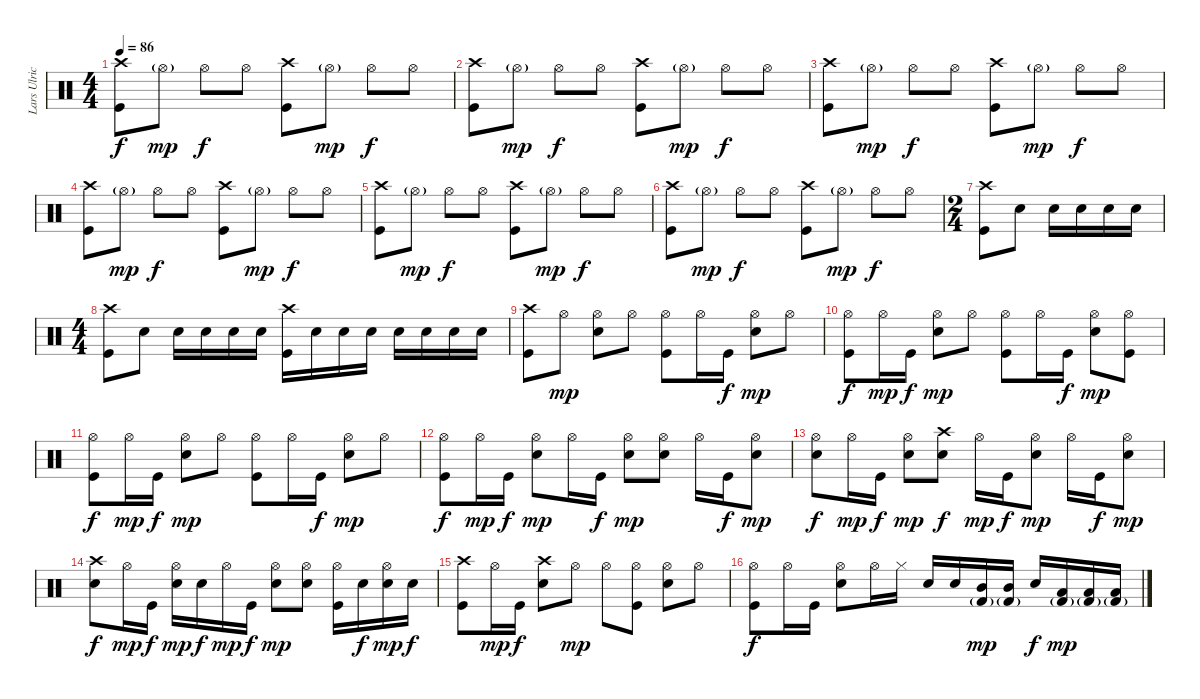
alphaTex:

\track ("Lars Ulrich" "Lars Ulric") {instrument percussion}
\staff {score}
\articulation defaults
\ts (4 4)
\tempo 86
\clef neutral
\ks c
("Crash high (hit)" "Kick (hit)").8{dy f} "Hi-Hat (open)"{g}.8{dy mp} "Hi-Hat (open)".8{dy f} "Hi-Hat (open)".8 ("Crash high (hit)" "Kick (hit)").8 "Hi-Hat (open)"{g}.8{dy mp} "Hi-Hat (open)".8{dy f} "Hi-Hat (open)".8 |
("Crash high (hit)" "Kick (hit)").8 "Hi-Hat (open)"{g}.8{dy mp} "Hi-Hat (open)".8{dy f} "Hi-Hat (open)".8 ("Crash high (hit)" "Kick (hit)").8 "Hi-Hat (open)"{g}.8{dy mp} "Hi-Hat (open)".8{dy f} "Hi-Hat (open)".8 |
("Crash high (hit)" "Kick (hit)").8 "Hi-Hat (open)"{g}.8{dy mp} "Hi-Hat (open)".8{dy f} "Hi-Hat (open)".8 ("Crash high (hit)" "Kick (hit)").8 "Hi-Hat (open)"{g}.8{dy mp} "Hi-Hat (open)".8{dy f} "Hi-Hat (open)".8 |
("Crash high (hit)" "Kick (hit)").8 "Hi-Hat (open)"{g}.8{dy mp} "Hi-Hat (open)".8{dy f} "Hi-Hat (open)".8 ("Crash high (hit)" "Kick (hit)").8 "Hi-Hat (open)"{g}.8{dy mp} "Hi-Hat (open)".8{dy f} "Hi-Hat (open)".8 |
("Crash high (hit)" "Kick (hit)").8 "Hi-Hat (open)"{g}.8{dy mp} "Hi-Hat (open)".8{dy f} "Hi-Hat (open)".8 ("Crash high (hit)" "Kick (hit)").8 "Hi-Hat (open)"{g}.8{dy mp} "Hi-Hat (open)".8{dy f} "Hi-Hat (open)".8 |
("Crash high (hit)" "Kick (hit)").8 "Hi-Hat (open)"{g}.8{dy mp} "Hi-Hat (open)".8{dy f} "Hi-Hat (open)".8 ("Crash high (hit)" "Kick (hit)").8 "Hi-Hat (open)"{g}.8{dy mp} "Hi-Hat (open)".8{dy f} "Hi-Hat (open)".8 |
\ts (2 4)
("Crash high (hit)" "Kick (hit)").8 "Snare (hit) 2".8 "Snare (hit) 2".16 "Snare (hit) 2".16 "Snare (hit) 2".16 "Snare (hit) 2".16 |
\ts (4 4)
("Crash high (hit)" "Kick (hit)").8 "Snare (hit) 2".8 "Snare (hit) 2".16 "Snare (hit) 2".16 "Snare (hit) 2".16 "Snare (hit) 2".16 ("Crash high (hit)" "Kick (hit)").16 "Snare (hit) 2".16 "Snare (hit) 2".16 "Snare (hit) 2".16 "Snare (hit) 2".16 "Snare (hit) 2".16 "Snare (hit) 2".16 "Snare (hit) 2".16 |
("Crash high (hit)" "Kick (hit)").8 "Hi-Hat (open)".8{dy mp} ("Hi-Hat (open)" "Snare (hit) 2").8 "Hi-Hat (open)".8 ("Hi-Hat (open)" "Kick (hit)").8 "Hi-Hat (open)".16 "Kick (hit)".16{dy f} ("Hi-Hat (open)" "Snare (hit) 2").8{dy mp} "Hi-Hat (open)".8 |
("Hi-Hat (open)" "Kick (hit)").8{dy f} "Hi-Hat (open)".16{dy mp} "Kick (hit)".16{dy f} ("Hi-Hat (open)" "Snare (hit) 2").8{dy mp} "Hi-Hat (open)".8 ("Hi-Hat (open)" "Kick (hit)").8 "Hi-Hat (open)".16 "Kick (hit)".16{dy f} ("Hi-Hat (open)" "Snare (hit) 2").8{dy mp} ("Hi-Hat (open)" "Kick (hit)").8 |
("Hi-Hat (open)" "Kick (hit)").8{dy f} "Hi-Hat (open)".16{dy mp} "Kick (hit)".16{dy f} ("Hi-Hat (open)" "Snare (hit) 2").8{dy mp} "Hi-Hat (open)".8 ("Hi-Hat (open)" "Kick (hit)").8 "Hi-Hat (open)".16 "Kick (hit)".16{dy f} ("Hi-Hat (open)" "Snare (hit) 2").8{dy mp} "Hi-Hat (open)".8 |
("Hi-Hat (open)" "Kick (hit)").8{dy f} "Hi-Hat (open)".16{dy mp} "Kick (hit)".16{dy f} ("Hi-Hat (open)" "Snare (hit) 2").8{dy mp} "Hi-Hat (open)".16 "Kick (hit)".16{dy f} ("Hi-Hat (open)" "Snare (hit) 2").8{dy mp} ("Hi-Hat (open)" "Snare (hit) 2").8 "Hi-Hat (open)".16 "Kick (hit)".16{dy f} ("Hi-Hat (open)" "Snare (hit) 2").8{dy mp} |
("Hi-Hat (open)" "Snare (hit) 2").8{dy f} "Hi-Hat (open)".16{dy mp} "Kick (hit)".16{dy f} ("Hi-Hat (open)" "Snare (hit) 2").8{dy mp} ("Crash high (hit)" "Snare (hit) 2").8{dy f} "Hi-Hat (open)".16{dy mp} "Kick (hit)".16{dy f} ("Hi-Hat (open)" "Snare (hit) 2").8{dy mp} "Hi-Hat (open)".16 "Kick (hit)".16{dy f} ("Hi-Hat (open)" "Snare (hit) 2").8{dy mp} |
("Crash high (hit)" "Snare (hit) 2").8{dy f} "Hi-Hat (open)".16{dy mp} "Kick (hit)".16{dy f} ("Hi-Hat (open)" "Snare (hit) 2").16{dy mp} "Snare (hit) 2".16{dy f} "Hi-Hat (open)".16{dy mp} "Kick (hit)".16{dy f} ("Hi-Hat (open)" "Snare (hit) 2").8{dy mp} ("Hi-Hat (open)" "Snare (hit) 2").8 ("Hi-Hat (open)" "Kick (hit)").16 "Snare (hit) 2".16{dy f} ("Hi-Hat (open)" "Snare (hit) 2").16{dy mp} "Snare (hit) 2".16{dy f} |
("Crash high (hit)" "Kick (hit)").8 "Hi-Hat (open)".16{dy mp} "Kick (hit)".16{dy f} ("Crash high (hit)" "Snare (hit) 2").8 "Hi-Hat (open)".8{dy mp} "Hi-Hat (open)".8 ("Hi-Hat (open)" "Kick (hit)").8 ("Hi-Hat (open)" "Snare (hit) 2").8 "Hi-Hat (open)".8 |
("Hi-Hat (open)" "Kick (hit)").8{dy f} "Hi-Hat (open)".16 "Kick (hit)".16 ("Hi-Hat (open)" "Snare (hit) 2").8 "Hi-Hat (open)".16 "Hi-Hat (closed)".16 "Snare (hit) 2".16 "Snare (hit) 2".16 ("Mid Tom (hit)" "Kick (hit) 2"{g}).16{dy mp} ("Mid Tom (hit)" "Kick (hit) 2"{g}).16 "Snare (hit) 2".16{dy f} ("Low Tom (hit)" "Kick (hit) 2"{g}).16{dy mp} ("Low Tom (hit)" "Kick (hit) 2"{g}).16 ("Low Tom (hit)" "Kick (hit) 2"{g}).16
